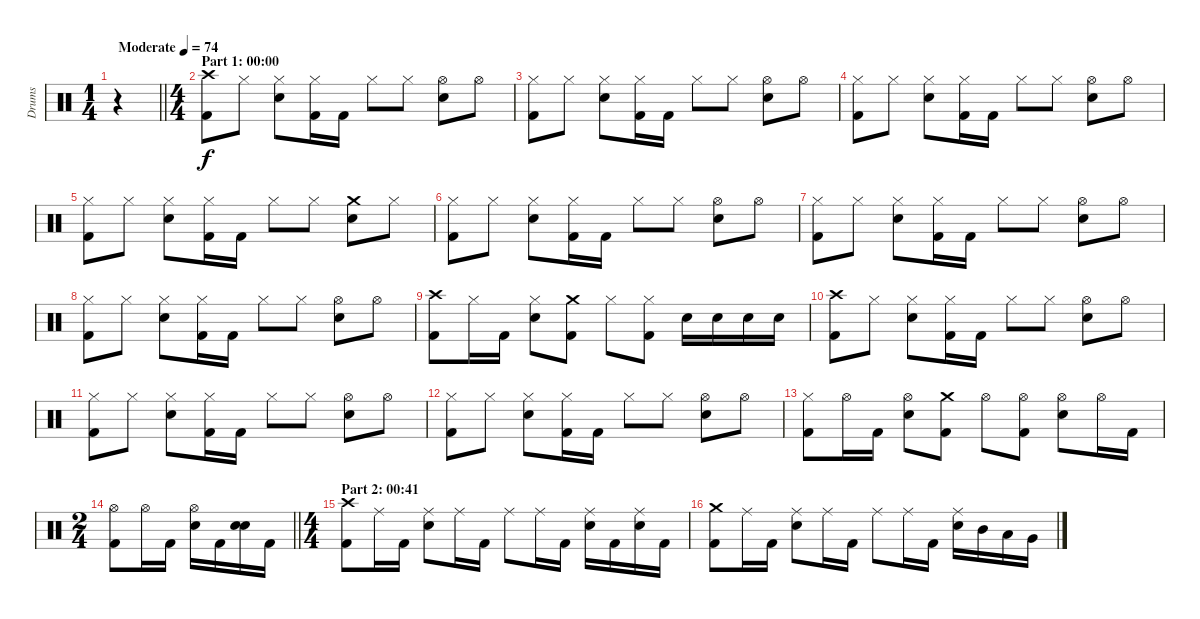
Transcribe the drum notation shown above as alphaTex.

\track ("Drums" "Drums") {instrument percussion}
\staff {score}
\articulation defaults
\ts (1 4)
\tempo (74 "Moderate")
\clef neutral
\barLineRight lightlight
\ks c
r.4{dy f} |
\ts (4 4)
\section ("" "Part 1: 00:00")
("Crash high (hit)" "Kick (hit) 2").8 "Hi-Hat (closed)".8 ("Hi-Hat (closed)" "Electric Snare (hit)").8 ("Hi-Hat (closed)" "Kick (hit) 2").16 "Kick (hit) 2".16 "Hi-Hat (closed)".8 "Hi-Hat (closed)".8 ("Hi-Hat (open)" "Electric Snare (hit)").8 "Hi-Hat (open)".8 |
("Hi-Hat (closed)" "Kick (hit) 2").8 "Hi-Hat (closed)".8 ("Hi-Hat (closed)" "Electric Snare (hit)").8 ("Hi-Hat (closed)" "Kick (hit) 2").16 "Kick (hit) 2".16 "Hi-Hat (closed)".8 "Hi-Hat (closed)".8 ("Hi-Hat (open)" "Electric Snare (hit)").8 "Hi-Hat (open)".8 |
("Hi-Hat (closed)" "Kick (hit) 2").8 "Hi-Hat (closed)".8 ("Hi-Hat (closed)" "Electric Snare (hit)").8 ("Hi-Hat (closed)" "Kick (hit) 2").16 "Kick (hit) 2".16 "Hi-Hat (closed)".8 "Hi-Hat (closed)".8 ("Hi-Hat (open)" "Electric Snare (hit)").8 "Hi-Hat (open)".8 |
("Hi-Hat (closed)" "Kick (hit) 2").8 "Hi-Hat (closed)".8 ("Hi-Hat (closed)" "Electric Snare (hit)").8 ("Hi-Hat (closed)" "Kick (hit) 2").16 "Kick (hit) 2".16 "Hi-Hat (closed)".8 "Hi-Hat (closed)".8 ("Crash medium (hit)" "Electric Snare (hit)").8 "Hi-Hat (closed)".8 |
("Hi-Hat (closed)" "Kick (hit) 2").8 "Hi-Hat (closed)".8 ("Hi-Hat (closed)" "Electric Snare (hit)").8 ("Hi-Hat (closed)" "Kick (hit) 2").16 "Kick (hit) 2".16 "Hi-Hat (closed)".8 "Hi-Hat (closed)".8 ("Hi-Hat (open)" "Electric Snare (hit)").8 "Hi-Hat (open)".8 |
("Hi-Hat (closed)" "Kick (hit) 2").8 "Hi-Hat (closed)".8 ("Hi-Hat (closed)" "Electric Snare (hit)").8 ("Hi-Hat (closed)" "Kick (hit) 2").16 "Kick (hit) 2".16 "Hi-Hat (closed)".8 "Hi-Hat (closed)".8 ("Hi-Hat (open)" "Electric Snare (hit)").8 "Hi-Hat (open)".8 |
("Hi-Hat (closed)" "Kick (hit) 2").8 "Hi-Hat (closed)".8 ("Hi-Hat (closed)" "Electric Snare (hit)").8 ("Hi-Hat (closed)" "Kick (hit) 2").16 "Kick (hit) 2".16 "Hi-Hat (closed)".8 "Hi-Hat (closed)".8 ("Hi-Hat (open)" "Electric Snare (hit)").8 "Hi-Hat (open)".8 |
("Crash high (hit)" "Kick (hit) 2").8 "Hi-Hat (closed)".16 "Kick (hit) 2".16 ("Hi-Hat (closed)" "Electric Snare (hit)").8 ("Crash medium (hit)" "Kick (hit) 2").8 "Hi-Hat (closed)".8 ("Hi-Hat (closed)" "Kick (hit) 2").8 "Electric Snare (hit)".16 "Electric Snare (hit)".16 "Electric Snare (hit)".16 "Electric Snare (hit)".16 |
("Crash high (hit)" "Kick (hit) 2").8 "Hi-Hat (closed)".8 ("Hi-Hat (closed)" "Electric Snare (hit)").8 ("Hi-Hat (closed)" "Kick (hit) 2").16 "Kick (hit) 2".16 "Hi-Hat (closed)".8 "Hi-Hat (closed)".8 ("Hi-Hat (open)" "Electric Snare (hit)").8 "Hi-Hat (open)".8 |
("Hi-Hat (closed)" "Kick (hit) 2").8 "Hi-Hat (closed)".8 ("Hi-Hat (closed)" "Electric Snare (hit)").8 ("Hi-Hat (closed)" "Kick (hit) 2").16 "Kick (hit) 2".16 "Hi-Hat (closed)".8 "Hi-Hat (closed)".8 ("Hi-Hat (open)" "Electric Snare (hit)").8 "Hi-Hat (open)".8 |
("Hi-Hat (closed)" "Kick (hit) 2").8 "Hi-Hat (closed)".8 ("Hi-Hat (closed)" "Electric Snare (hit)").8 ("Hi-Hat (closed)" "Kick (hit) 2").16 "Kick (hit) 2".16 "Hi-Hat (closed)".8 "Hi-Hat (closed)".8 ("Hi-Hat (open)" "Electric Snare (hit)").8 "Hi-Hat (open)".8 |
("Hi-Hat (closed)" "Kick (hit) 2").8 "Hi-Hat (open)".16 "Kick (hit) 2".16 ("Hi-Hat (open)" "Electric Snare (hit)").8 ("Crash medium (hit)" "Kick (hit) 2").8 "Hi-Hat (open)".8 ("Hi-Hat (open)" "Kick (hit) 2").8 ("Hi-Hat (open)" "Electric Snare (hit)").8 "Hi-Hat (open)".16 "Kick (hit) 2".16 |
\ts (2 4)
\barLineRight lightlight
("Hi-Hat (open)" "Kick (hit) 2").8 "Hi-Hat (open)".16 "Kick (hit) 2".16 ("Hi-Hat (open)" "Electric Snare (hit)").16 "Kick (hit) 2".16 ("Electric Snare (hit)" "Electric Snare (hit)").16{bd 120} "Kick (hit) 2".16 |
\ts (4 4)
\section ("" "Part 2: 00:41")
("Crash high (hit)" "Kick (hit) 2").8 "Ride (middle)".16 "Kick (hit) 2".16 ("Ride (middle)" "Electric Snare (hit)").8 "Ride (middle)".16 "Kick (hit) 2".16 "Ride (middle)".8 "Ride (middle)".16 "Kick (hit) 2".16 ("Ride (middle)" "Electric Snare (hit)").16 "Kick (hit) 2".16 ("Ride (middle)" "Electric Snare (hit)").16 "Kick (hit) 2".16 |
("Crash medium (hit)" "Kick (hit) 2").8 "Ride (middle)".16 "Kick (hit) 2".16 ("Ride (middle)" "Electric Snare (hit)").8 "Ride (middle)".16 "Kick (hit) 2".16 "Ride (middle)".8 "Ride (middle)".16 "Kick (hit) 2".16 ("Ride (middle)" "Electric Snare (hit)").16 "Mid Tom (hit)".16 "Low Tom (hit)".16 "Very Low Tom (hit)".16
